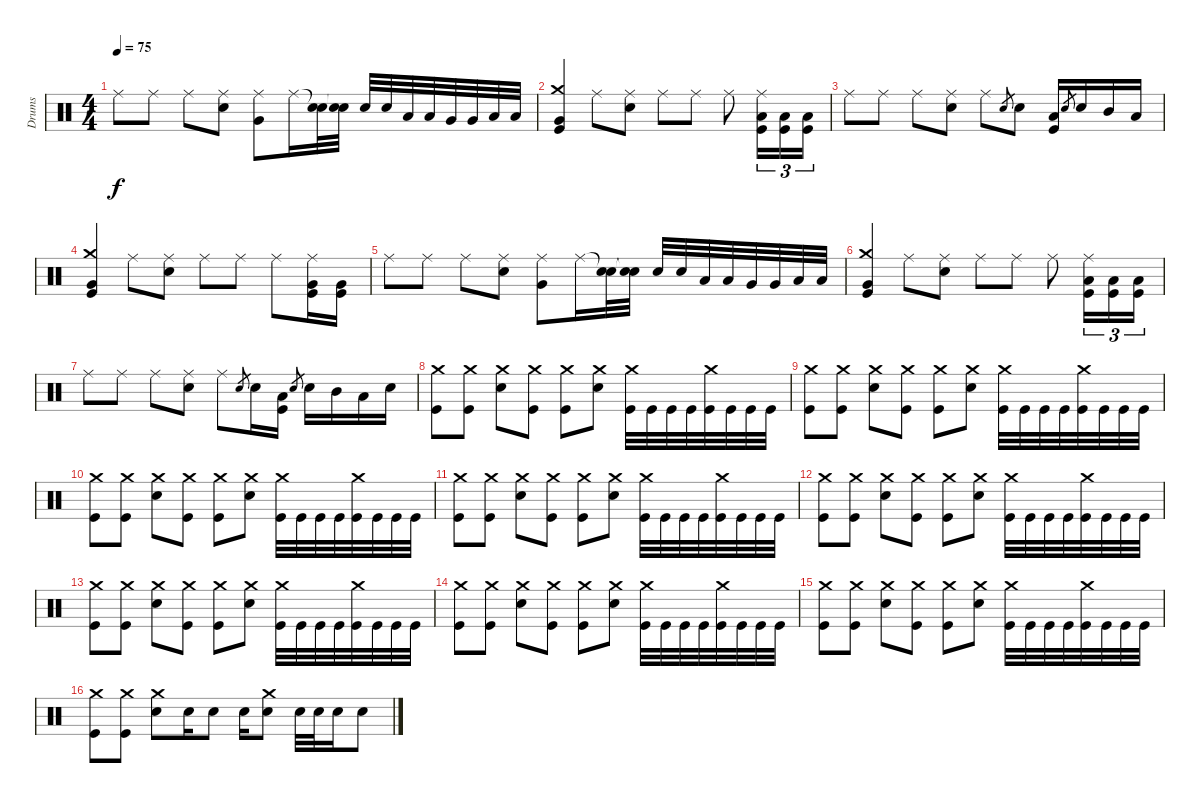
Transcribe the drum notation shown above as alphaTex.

\track ("Drums" "Drums") {instrument percussion}
\staff {score}
\articulation defaults
\ts (4 4)
\tempo 75
\clef neutral
\ks c "Ride (middle)".8{dy f} "Ride (middle)".8 "Ride (middle)".8
("Ride (middle)" "Electric Snare (hit)").8 ("Ride (middle)" "Very Low Tom (hit)").8 "Ride (middle)".16 ("Snare (hit)"{t} "Electric Snare (hit)").32 ("Snare (hit)"{t} "Electric Snare (hit)").32 "Electric Snare (hit)".32 "Electric Snare (hit)".32 "Low Tom (hit)".32 "Low Tom (hit)".32 "Very Low Tom (hit)".32 "Very Low Tom (hit)".32 "Low Floor Tom (hit)".32 "Low Floor Tom (hit)".32 |
("Crash medium (hit)" "Very Low Tom (hit)" "Kick (hit)").4 "Ride (middle)".8 ("Ride (middle)" "Electric Snare (hit)").8 "Ride (middle)".8 "Ride (middle)".8 "Ride (middle)".8 ("Ride (middle)" "Low Tom (hit)" "Kick (hit)").16{tu (3 2)} ("Low Tom (hit)" "Kick (hit)").16{tu (3 2)} ("Low Tom (hit)" "Kick (hit)").16{tu (3 2)} |
"Ride (middle)".8 "Ride (middle)".8 "Ride (middle)".8 ("Ride (middle)" "Electric Snare (hit)").8 "Ride (middle)".8 "Electric Snare (hit)".8{gr} "Electric Snare (hit)".8 ("Low Tom (hit)" "Kick (hit)").16 "Electric Snare (hit)".8{gr} "Electric Snare (hit)".16 "Mid Tom (hit)".16 "Low Tom (hit)".16 |
("Crash medium (hit)" "Very Low Tom (hit)" "Kick (hit)").4 "Ride (middle)".8 ("Ride (middle)" "Electric Snare (hit)").8 "Ride (middle)".8 "Ride (middle)".8 "Ride (middle)".8 ("Ride (middle)" "Very Low Tom (hit)" "Kick (hit)").16 ("Very Low Tom (hit)" "Kick (hit)").16 |
"Ride (middle)".8 "Ride (middle)".8 "Ride (middle)".8 ("Ride (middle)" "Electric Snare (hit)").8 ("Ride (middle)" "Very Low Tom (hit)").8 "Ride (middle)".16 ("Snare (hit)"{t} "Electric Snare (hit)").32 ("Snare (hit)"{t} "Electric Snare (hit)").32 "Electric Snare (hit)".32 "Electric Snare (hit)".32 "Low Tom (hit)".32 "Low Tom (hit)".32 "Very Low Tom (hit)".32 "Very Low Tom (hit)".32 "Low Floor Tom (hit)".32 "Low Floor Tom (hit)".32 |
("Crash medium (hit)" "Very Low Tom (hit)" "Kick (hit)").4 "Ride (middle)".8 ("Ride (middle)" "Electric Snare (hit)").8 "Ride (middle)".8 "Ride (middle)".8 "Ride (middle)".8 ("Ride (middle)" "Low Tom (hit)" "Kick (hit)").16{tu (3 2)} ("Low Tom (hit)" "Kick (hit)").16{tu (3 2)} ("Low Tom (hit)" "Kick (hit)").16{tu (3 2)} |
"Ride (middle)".8 "Ride (middle)".8 "Ride (middle)".8 ("Ride (middle)" "Electric Snare (hit)").8 "Ride (middle)".8 "Electric Snare (hit)".8{gr} "Electric Snare (hit)".16 ("Low Tom (hit)" "Kick (hit)").16 "Electric Snare (hit)".8{gr} "Electric Snare (hit)".16 "Mid Tom (hit)".16 "Low Tom (hit)".16 "Electric Snare (hit)".16 |
("Crash medium (hit)" "Kick (hit)").8 ("Crash medium (hit)" "Kick (hit)").8 ("Crash medium (hit)" "Electric Snare (hit)").8 ("Crash medium (hit)" "Kick (hit)").8 ("Crash medium (hit)" "Kick (hit)").8 ("Crash medium (hit)" "Electric Snare (hit)").8 ("Crash medium (hit)" "Kick (hit)").32 "Kick (hit)".32 "Kick (hit)".32 "Kick (hit)".32 ("Crash medium (hit)" "Kick (hit)").32 "Kick (hit)".32 "Kick (hit)".32 "Kick (hit)".32 |
("Crash medium (hit)" "Kick (hit)").8 ("Crash medium (hit)" "Kick (hit)").8 ("Crash medium (hit)" "Electric Snare (hit)").8 ("Crash medium (hit)" "Kick (hit)").8 ("Crash medium (hit)" "Kick (hit)").8 ("Crash medium (hit)" "Electric Snare (hit)").8 ("Crash medium (hit)" "Kick (hit)").32 "Kick (hit)".32 "Kick (hit)".32 "Kick (hit)".32 ("Crash medium (hit)" "Kick (hit)").32 "Kick (hit)".32 "Kick (hit)".32 "Kick (hit)".32 |
("Crash medium (hit)" "Kick (hit)").8 ("Crash medium (hit)" "Kick (hit)").8 ("Crash medium (hit)" "Electric Snare (hit)").8 ("Crash medium (hit)" "Kick (hit)").8 ("Crash medium (hit)" "Kick (hit)").8 ("Crash medium (hit)" "Electric Snare (hit)").8 ("Crash medium (hit)" "Kick (hit)").32 "Kick (hit)".32 "Kick (hit)".32 "Kick (hit)".32 ("Crash medium (hit)" "Kick (hit)").32 "Kick (hit)".32 "Kick (hit)".32 "Kick (hit)".32 |
("Crash medium (hit)" "Kick (hit)").8 ("Crash medium (hit)" "Kick (hit)").8 ("Crash medium (hit)" "Electric Snare (hit)").8 ("Crash medium (hit)" "Kick (hit)").8 ("Crash medium (hit)" "Kick (hit)").8 ("Crash medium (hit)" "Electric Snare (hit)").8 ("Crash medium (hit)" "Kick (hit)").32 "Kick (hit)".32 "Kick (hit)".32 "Kick (hit)".32 ("Crash medium (hit)" "Kick (hit)").32 "Kick (hit)".32 "Kick (hit)".32 "Kick (hit)".32 |
("Crash medium (hit)" "Kick (hit)").8 ("Crash medium (hit)" "Kick (hit)").8 ("Crash medium (hit)" "Electric Snare (hit)").8 ("Crash medium (hit)" "Kick (hit)").8 ("Crash medium (hit)" "Kick (hit)").8 ("Crash medium (hit)" "Electric Snare (hit)").8 ("Crash medium (hit)" "Kick (hit)").32 "Kick (hit)".32 "Kick (hit)".32 "Kick (hit)".32 ("Crash medium (hit)" "Kick (hit)").32 "Kick (hit)".32 "Kick (hit)".32 "Kick (hit)".32 |
("Crash medium (hit)" "Kick (hit)").8 ("Crash medium (hit)" "Kick (hit)").8 ("Crash medium (hit)" "Electric Snare (hit)").8 ("Crash medium (hit)" "Kick (hit)").8 ("Crash medium (hit)" "Kick (hit)").8 ("Crash medium (hit)" "Electric Snare (hit)").8 ("Crash medium (hit)" "Kick (hit)").32 "Kick (hit)".32 "Kick (hit)".32 "Kick (hit)".32 ("Crash medium (hit)" "Kick (hit)").32 "Kick (hit)".32 "Kick (hit)".32 "Kick (hit)".32 |
("Crash medium (hit)" "Kick (hit)").8 ("Crash medium (hit)" "Kick (hit)").8 ("Crash medium (hit)" "Electric Snare (hit)").8 ("Crash medium (hit)" "Kick (hit)").8 ("Crash medium (hit)" "Kick (hit)").8 ("Crash medium (hit)" "Electric Snare (hit)").8 ("Crash medium (hit)" "Kick (hit)").32 "Kick (hit)".32 "Kick (hit)".32 "Kick (hit)".32 ("Crash medium (hit)" "Kick (hit)").32 "Kick (hit)".32 "Kick (hit)".32 "Kick (hit)".32 |
("Crash medium (hit)" "Kick (hit)").8 ("Crash medium (hit)" "Kick (hit)").8 ("Crash medium (hit)" "Electric Snare (hit)").8 ("Crash medium (hit)" "Kick (hit)").8 ("Crash medium (hit)" "Kick (hit)").8 ("Crash medium (hit)" "Electric Snare (hit)").8 ("Crash medium (hit)" "Kick (hit)").32 "Kick (hit)".32 "Kick (hit)".32 "Kick (hit)".32 ("Crash medium (hit)" "Kick (hit)").32 "Kick (hit)".32 "Kick (hit)".32 "Kick (hit)".32 |
("Crash medium (hit)" "Kick (hit)").8 ("Crash medium (hit)" "Kick (hit)").8 ("Crash medium (hit)" "Electric Snare (hit)").8 "Electric Snare (hit)".16 "Electric Snare (hit)".8 "Electric Snare (hit)".16 ("Crash medium (hit)" "Electric Snare (hit)").8 "Electric Snare (hit)".32 "Electric Snare (hit)".32 "Electric Snare (hit)".16 "Electric Snare (hit)".8
